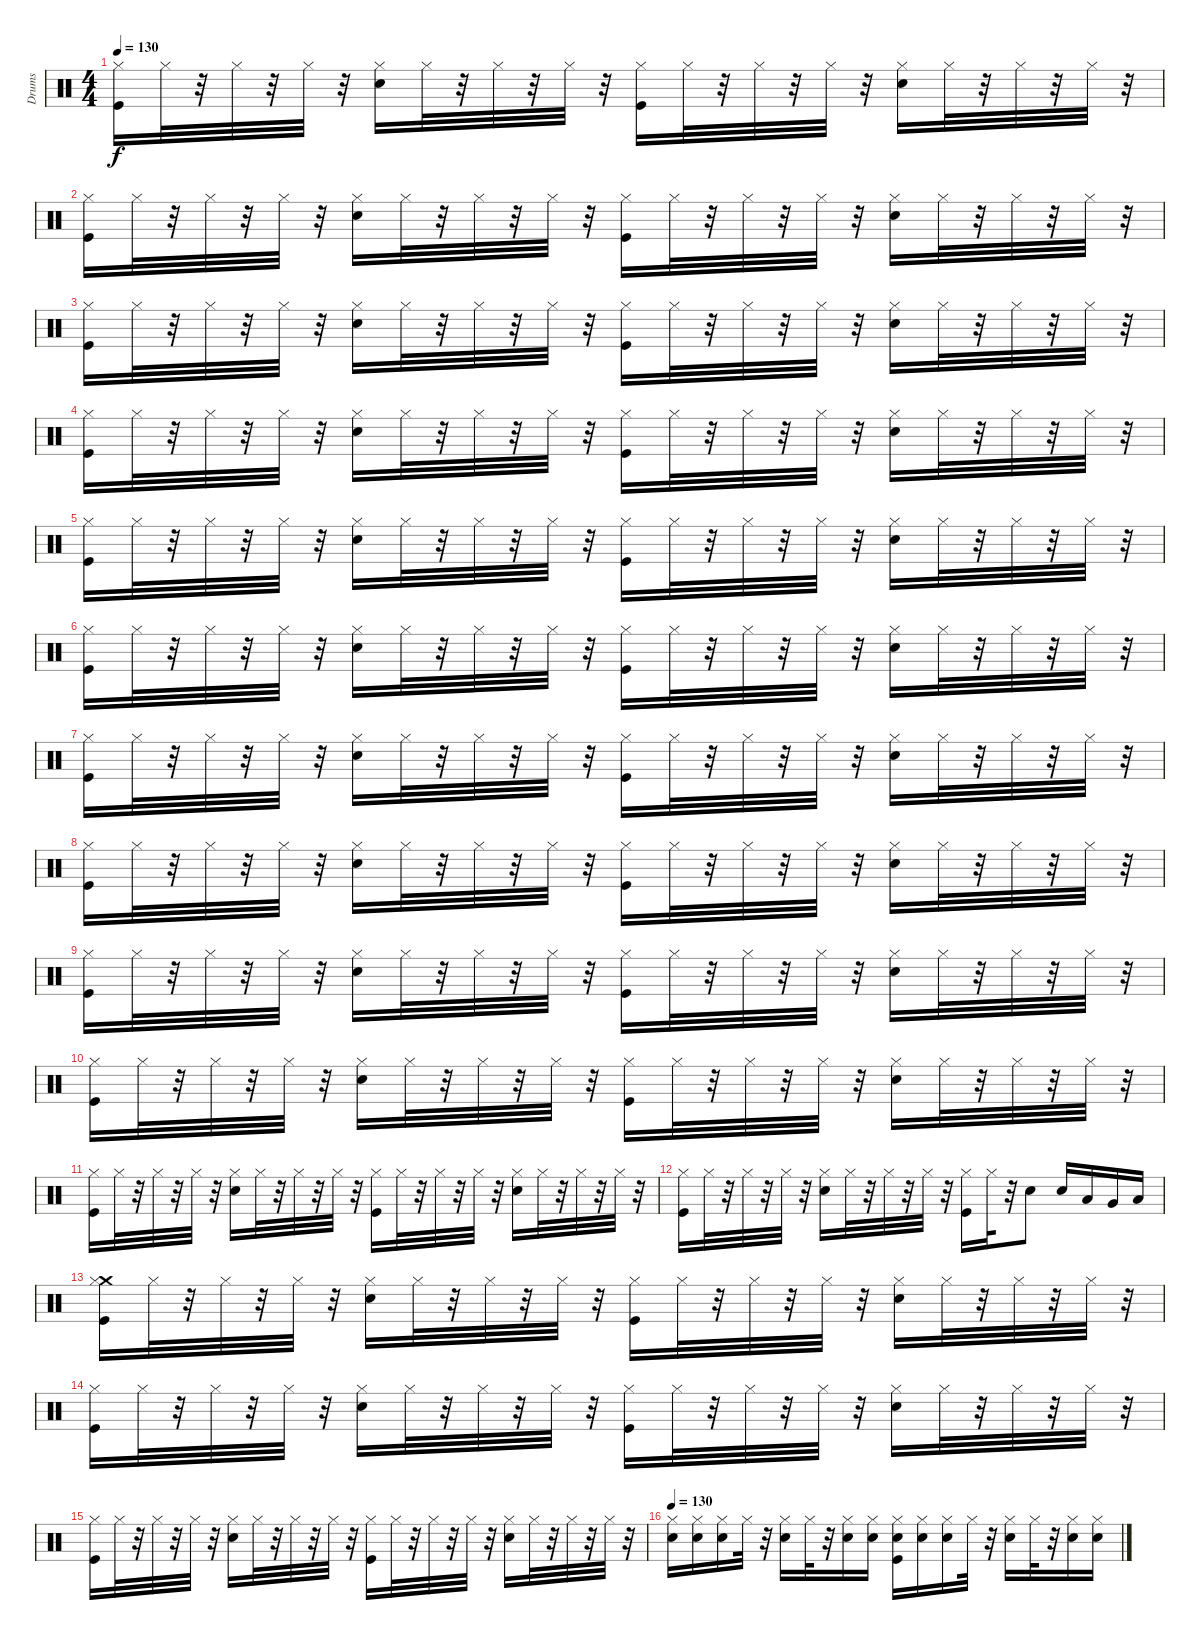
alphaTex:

\track ("Drums" "Drums") {instrument percussion}
\staff {score}
\articulation defaults
\ts (4 4)
\tempo 130
\clef neutral
\ks c
("Hi-Hat (closed)" "Kick (hit)").16{dy f} "Hi-Hat (closed)".32 r.32 "Hi-Hat (closed)".32 r.32 "Hi-Hat (closed)".32 r.32 ("Hi-Hat (closed)" "Snare (hit) 2").16 "Hi-Hat (closed)".32 r.32 "Hi-Hat (closed)".32 r.32 "Hi-Hat (closed)".32 r.32 ("Hi-Hat (closed)" "Kick (hit)").16 "Hi-Hat (closed)".32 r.32 "Hi-Hat (closed)".32 r.32 "Hi-Hat (closed)".32 r.32 ("Hi-Hat (closed)" "Snare (hit) 2").16 "Hi-Hat (closed)".32 r.32 "Hi-Hat (closed)".32 r.32 "Hi-Hat (closed)".32 r.32 |
("Hi-Hat (closed)" "Kick (hit)").16 "Hi-Hat (closed)".32 r.32 "Hi-Hat (closed)".32 r.32 "Hi-Hat (closed)".32 r.32 ("Hi-Hat (closed)" "Snare (hit) 2").16 "Hi-Hat (closed)".32 r.32 "Hi-Hat (closed)".32 r.32 "Hi-Hat (closed)".32 r.32 ("Hi-Hat (closed)" "Kick (hit)").16 "Hi-Hat (closed)".32 r.32 "Hi-Hat (closed)".32 r.32 "Hi-Hat (closed)".32 r.32 ("Hi-Hat (closed)" "Snare (hit) 2").16 "Hi-Hat (closed)".32 r.32 "Hi-Hat (closed)".32 r.32 "Hi-Hat (closed)".32 r.32 |
("Hi-Hat (closed)" "Kick (hit)").16 "Hi-Hat (closed)".32 r.32 "Hi-Hat (closed)".32 r.32 "Hi-Hat (closed)".32 r.32 ("Hi-Hat (closed)" "Snare (hit) 2").16 "Hi-Hat (closed)".32 r.32 "Hi-Hat (closed)".32 r.32 "Hi-Hat (closed)".32 r.32 ("Hi-Hat (closed)" "Kick (hit)").16 "Hi-Hat (closed)".32 r.32 "Hi-Hat (closed)".32 r.32 "Hi-Hat (closed)".32 r.32 ("Hi-Hat (closed)" "Snare (hit) 2").16 "Hi-Hat (closed)".32 r.32 "Hi-Hat (closed)".32 r.32 "Hi-Hat (closed)".32 r.32 |
("Hi-Hat (closed)" "Kick (hit)").16 "Hi-Hat (closed)".32 r.32 "Hi-Hat (closed)".32 r.32 "Hi-Hat (closed)".32 r.32 ("Hi-Hat (closed)" "Snare (hit) 2").16 "Hi-Hat (closed)".32 r.32 "Hi-Hat (closed)".32 r.32 "Hi-Hat (closed)".32 r.32 ("Hi-Hat (closed)" "Kick (hit)").16 "Hi-Hat (closed)".32 r.32 "Hi-Hat (closed)".32 r.32 "Hi-Hat (closed)".32 r.32 ("Hi-Hat (closed)" "Snare (hit) 2").16 "Hi-Hat (closed)".32 r.32 "Hi-Hat (closed)".32 r.32 "Hi-Hat (closed)".32 r.32 |
("Hi-Hat (closed)" "Kick (hit)").16 "Hi-Hat (closed)".32 r.32 "Hi-Hat (closed)".32 r.32 "Hi-Hat (closed)".32 r.32 ("Hi-Hat (closed)" "Snare (hit) 2").16 "Hi-Hat (closed)".32 r.32 "Hi-Hat (closed)".32 r.32 "Hi-Hat (closed)".32 r.32 ("Hi-Hat (closed)" "Kick (hit)").16 "Hi-Hat (closed)".32 r.32 "Hi-Hat (closed)".32 r.32 "Hi-Hat (closed)".32 r.32 ("Hi-Hat (closed)" "Snare (hit) 2").16 "Hi-Hat (closed)".32 r.32 "Hi-Hat (closed)".32 r.32 "Hi-Hat (closed)".32 r.32 |
("Hi-Hat (closed)" "Kick (hit)").16 "Hi-Hat (closed)".32 r.32 "Hi-Hat (closed)".32 r.32 "Hi-Hat (closed)".32 r.32 ("Hi-Hat (closed)" "Snare (hit) 2").16 "Hi-Hat (closed)".32 r.32 "Hi-Hat (closed)".32 r.32 "Hi-Hat (closed)".32 r.32 ("Hi-Hat (closed)" "Kick (hit)").16 "Hi-Hat (closed)".32 r.32 "Hi-Hat (closed)".32 r.32 "Hi-Hat (closed)".32 r.32 ("Hi-Hat (closed)" "Snare (hit) 2").16 "Hi-Hat (closed)".32 r.32 "Hi-Hat (closed)".32 r.32 "Hi-Hat (closed)".32 r.32 |
("Hi-Hat (closed)" "Kick (hit)").16 "Hi-Hat (closed)".32 r.32 "Hi-Hat (closed)".32 r.32 "Hi-Hat (closed)".32 r.32 ("Hi-Hat (closed)" "Snare (hit) 2").16 "Hi-Hat (closed)".32 r.32 "Hi-Hat (closed)".32 r.32 "Hi-Hat (closed)".32 r.32 ("Hi-Hat (closed)" "Kick (hit)").16 "Hi-Hat (closed)".32 r.32 "Hi-Hat (closed)".32 r.32 "Hi-Hat (closed)".32 r.32 ("Hi-Hat (closed)" "Snare (hit) 2").16 "Hi-Hat (closed)".32 r.32 "Hi-Hat (closed)".32 r.32 "Hi-Hat (closed)".32 r.32 |
("Hi-Hat (closed)" "Kick (hit)").16 "Hi-Hat (closed)".32 r.32 "Hi-Hat (closed)".32 r.32 "Hi-Hat (closed)".32 r.32 ("Hi-Hat (closed)" "Snare (hit) 2").16 "Hi-Hat (closed)".32 r.32 "Hi-Hat (closed)".32 r.32 "Hi-Hat (closed)".32 r.32 ("Hi-Hat (closed)" "Kick (hit)").16 "Hi-Hat (closed)".32 r.32 "Hi-Hat (closed)".32 r.32 "Hi-Hat (closed)".32 r.32 ("Hi-Hat (closed)" "Snare (hit) 2").16 "Hi-Hat (closed)".32 r.32 "Hi-Hat (closed)".32 r.32 "Hi-Hat (closed)".32 r.32 |
("Hi-Hat (closed)" "Kick (hit)").16 "Hi-Hat (closed)".32 r.32 "Hi-Hat (closed)".32 r.32 "Hi-Hat (closed)".32 r.32 ("Hi-Hat (closed)" "Snare (hit) 2").16 "Hi-Hat (closed)".32 r.32 "Hi-Hat (closed)".32 r.32 "Hi-Hat (closed)".32 r.32 ("Hi-Hat (closed)" "Kick (hit)").16 "Hi-Hat (closed)".32 r.32 "Hi-Hat (closed)".32 r.32 "Hi-Hat (closed)".32 r.32 ("Hi-Hat (closed)" "Snare (hit) 2").16 "Hi-Hat (closed)".32 r.32 "Hi-Hat (closed)".32 r.32 "Hi-Hat (closed)".32 r.32 |
("Hi-Hat (closed)" "Kick (hit)").16 "Hi-Hat (closed)".32 r.32 "Hi-Hat (closed)".32 r.32 "Hi-Hat (closed)".32 r.32 ("Hi-Hat (closed)" "Snare (hit) 2").16 "Hi-Hat (closed)".32 r.32 "Hi-Hat (closed)".32 r.32 "Hi-Hat (closed)".32 r.32 ("Hi-Hat (closed)" "Kick (hit)").16 "Hi-Hat (closed)".32 r.32 "Hi-Hat (closed)".32 r.32 "Hi-Hat (closed)".32 r.32 ("Hi-Hat (closed)" "Snare (hit) 2").16 "Hi-Hat (closed)".32 r.32 "Hi-Hat (closed)".32 r.32 "Hi-Hat (closed)".32 r.32 |
("Hi-Hat (closed)" "Kick (hit)").16 "Hi-Hat (closed)".32 r.32 "Hi-Hat (closed)".32 r.32 "Hi-Hat (closed)".32 r.32 ("Hi-Hat (closed)" "Snare (hit) 2").16 "Hi-Hat (closed)".32 r.32 "Hi-Hat (closed)".32 r.32 "Hi-Hat (closed)".32 r.32 ("Hi-Hat (closed)" "Kick (hit)").16 "Hi-Hat (closed)".32 r.32 "Hi-Hat (closed)".32 r.32 "Hi-Hat (closed)".32 r.32 ("Hi-Hat (closed)" "Snare (hit) 2").16 "Hi-Hat (closed)".32 r.32 "Hi-Hat (closed)".32 r.32 "Hi-Hat (closed)".32 r.32 |
("Kick (hit)" "Hi-Hat (closed)").16 "Hi-Hat (closed)".32 r.32 "Hi-Hat (closed)".32 r.32 "Hi-Hat (closed)".32 r.32 ("Hi-Hat (closed)" "Snare (hit) 2").16 "Hi-Hat (closed)".32 r.32 "Hi-Hat (closed)".32 r.32 "Hi-Hat (closed)".32 r.32 ("Hi-Hat (closed)" "Kick (hit)").16 "Hi-Hat (closed)".32 r.32 "Snare (hit) 2".8 "Snare (hit) 2".16 "Low Tom (hit)".16 "Very Low Tom (hit)".16 "Low Floor Tom (hit)".16 |
("Crash medium (hit)" "Hi-Hat (closed)" "Kick (hit)").16 "Hi-Hat (closed)".32 r.32 "Hi-Hat (closed)".32 r.32 "Hi-Hat (closed)".32 r.32 ("Hi-Hat (closed)" "Snare (hit) 2").16 "Hi-Hat (closed)".32 r.32 "Hi-Hat (closed)".32 r.32 "Hi-Hat (closed)".32 r.32 ("Hi-Hat (closed)" "Kick (hit)").16 "Hi-Hat (closed)".32 r.32 "Hi-Hat (closed)".32 r.32 "Hi-Hat (closed)".32 r.32 ("Hi-Hat (closed)" "Snare (hit) 2").16 "Hi-Hat (closed)".32 r.32 "Hi-Hat (closed)".32 r.32 "Hi-Hat (closed)".32 r.32 |
("Hi-Hat (closed)" "Kick (hit)").16 "Hi-Hat (closed)".32 r.32 "Hi-Hat (closed)".32 r.32 "Hi-Hat (closed)".32 r.32 ("Hi-Hat (closed)" "Snare (hit) 2").16 "Hi-Hat (closed)".32 r.32 "Hi-Hat (closed)".32 r.32 "Hi-Hat (closed)".32 r.32 ("Hi-Hat (closed)" "Kick (hit)").16 "Hi-Hat (closed)".32 r.32 "Hi-Hat (closed)".32 r.32 "Hi-Hat (closed)".32 r.32 ("Hi-Hat (closed)" "Snare (hit) 2").16 "Hi-Hat (closed)".32 r.32 "Hi-Hat (closed)".32 r.32 "Hi-Hat (closed)".32 r.32 |
("Hi-Hat (closed)" "Kick (hit)").16 "Hi-Hat (closed)".32 r.32 "Hi-Hat (closed)".32 r.32 "Hi-Hat (closed)".32 r.32 ("Hi-Hat (closed)" "Snare (hit) 2").16 "Hi-Hat (closed)".32 r.32 "Hi-Hat (closed)".32 r.32 "Hi-Hat (closed)".32 r.32 ("Hi-Hat (closed)" "Kick (hit)").16 "Hi-Hat (closed)".32 r.32 "Hi-Hat (closed)".32 r.32 "Hi-Hat (closed)".32 r.32 ("Hi-Hat (closed)" "Snare (hit) 2").16 "Hi-Hat (closed)".32 r.32 "Hi-Hat (closed)".32 r.32 "Hi-Hat (closed)".32 r.32 |
\tempo 130
("Hi-Hat (closed)" "Snare (hit) 2").16 ("Electric Snare (hit)" "Hi-Hat (closed)").16 ("Snare (hit) 2" "Hi-Hat (closed)").16 "Hi-Hat (closed)".32 r.32 ("Snare (hit) 2" "Hi-Hat (closed)").16 "Hi-Hat (closed)".32 r.32 ("Snare (hit) 2" "Hi-Hat (closed)").16 ("Snare (hit) 2" "Hi-Hat (closed)").16 ("Snare (hit) 2" "Hi-Hat (closed)" "Kick (hit)").16 ("Snare (hit) 2" "Hi-Hat (closed)").16 ("Snare (hit) 2" "Hi-Hat (closed)").16 "Hi-Hat (closed)".32 r.32 ("Snare (hit) 2" "Hi-Hat (closed)").16 "Hi-Hat (closed)".32 r.32 ("Snare (hit) 2" "Hi-Hat (closed)").16 ("Snare (hit) 2" "Hi-Hat (closed)").16
